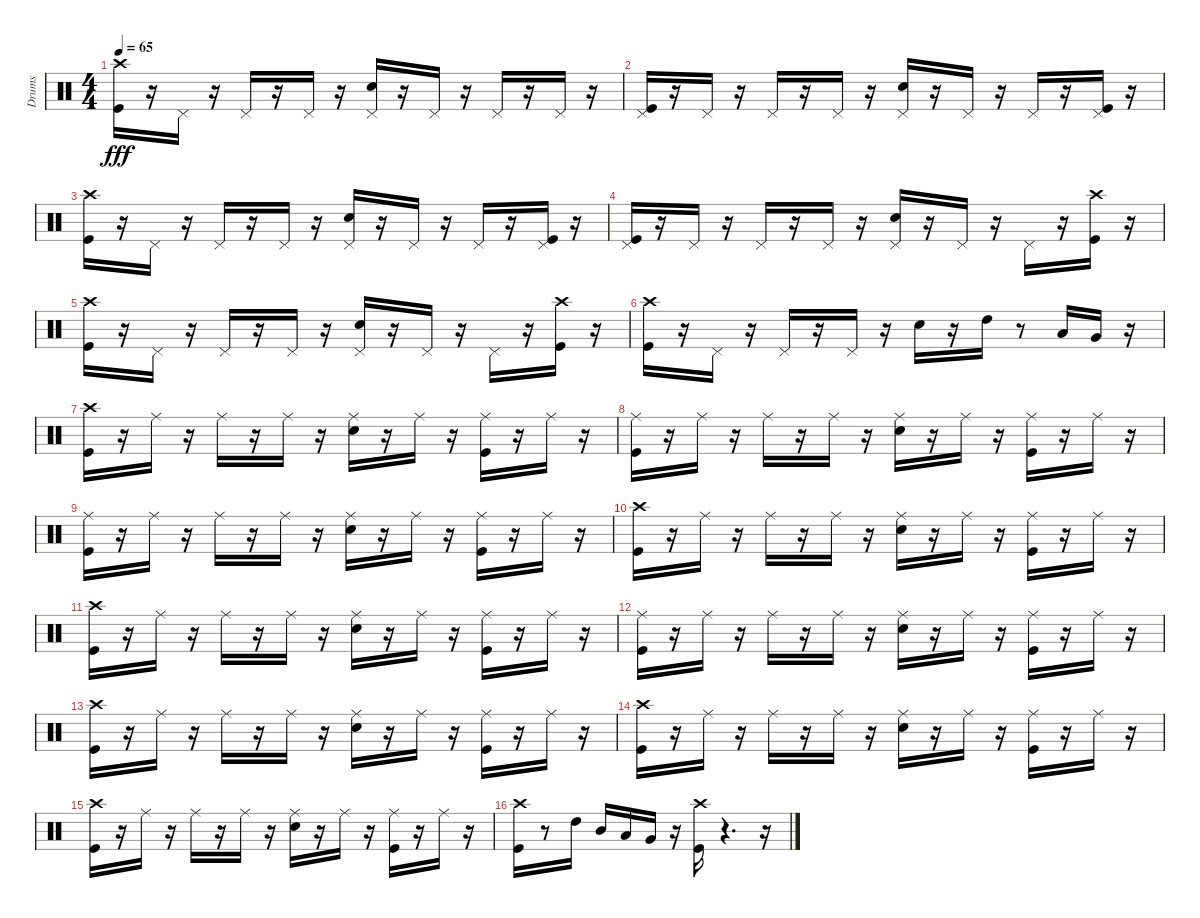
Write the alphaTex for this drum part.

\track ("Drums" "Drums") {instrument percussion}
\staff {score}
\articulation defaults
\ts (4 4)
\tempo 65
\clef neutral
\ks c
("Crash high (hit)" "Kick (hit)").16{dy fff} r.16 "Pedal Hi-Hat (hit)".16 r.16 "Pedal Hi-Hat (hit)".16 r.16 "Pedal Hi-Hat (hit)".16 r.16 ("Pedal Hi-Hat (hit)" "Snare (hit) 2").16 r.16 "Pedal Hi-Hat (hit)".16 r.16 "Pedal Hi-Hat (hit)".16 r.16 "Pedal Hi-Hat (hit)".16 r.16 |
("Kick (hit)" "Pedal Hi-Hat (hit)").16 r.16 "Pedal Hi-Hat (hit)".16 r.16 "Pedal Hi-Hat (hit)".16 r.16 "Pedal Hi-Hat (hit)".16 r.16 ("Snare (hit) 2" "Pedal Hi-Hat (hit)").16 r.16 "Pedal Hi-Hat (hit)".16 r.16 "Pedal Hi-Hat (hit)".16 r.16 ("Pedal Hi-Hat (hit)" "Kick (hit)").16 r.16 |
("Kick (hit)" "Crash high (hit)").16 r.16 "Pedal Hi-Hat (hit)".16 r.16 "Pedal Hi-Hat (hit)".16 r.16 "Pedal Hi-Hat (hit)".16 r.16 ("Snare (hit) 2" "Pedal Hi-Hat (hit)").16 r.16 "Pedal Hi-Hat (hit)".16 r.16 "Pedal Hi-Hat (hit)".16 r.16 ("Pedal Hi-Hat (hit)" "Kick (hit)").16 r.16 |
("Pedal Hi-Hat (hit)" "Kick (hit)").16 r.16 "Pedal Hi-Hat (hit)".16 r.16 "Pedal Hi-Hat (hit)".16 r.16 "Pedal Hi-Hat (hit)".16 r.16 ("Pedal Hi-Hat (hit)" "Snare (hit) 2").16 r.16 "Pedal Hi-Hat (hit)".16 r.16 "Pedal Hi-Hat (hit)".16 r.16 ("Kick (hit)" "Crash high (hit)").16 r.16 |
("Crash high (hit)" "Kick (hit)").16 r.16 "Pedal Hi-Hat (hit)".16 r.16 "Pedal Hi-Hat (hit)".16 r.16 "Pedal Hi-Hat (hit)".16 r.16 ("Pedal Hi-Hat (hit)" "Snare (hit) 2").16 r.16 "Pedal Hi-Hat (hit)".16 r.16 "Pedal Hi-Hat (hit)".16 r.16 ("Kick (hit)" "Crash high (hit)").16 r.16 |
("Kick (hit)" "Crash high (hit)").16 r.16 "Pedal Hi-Hat (hit)".16 r.16 "Pedal Hi-Hat (hit)".16 r.16 "Pedal Hi-Hat (hit)".16 r.16 "Snare (hit) 2".16 r.16 "High Tom (hit)".16 r.8 "Low Tom (hit)".16 "Very Low Tom (hit)".16 r.16 |
("Kick (hit)" "Crash high (hit)").16 r.16 "Ride (middle)".16 r.16 "Ride (middle)".16 r.16 "Ride (middle)".16 r.16 ("Snare (hit) 2" "Ride (middle)").16 r.16 "Ride (middle)".16 r.16 ("Kick (hit)" "Ride (middle)").16 r.16 "Ride (middle)".16 r.16 |
("Kick (hit)" "Ride (middle)").16 r.16 "Ride (middle)".16 r.16 "Ride (middle)".16 r.16 "Ride (middle)".16 r.16 ("Ride (middle)" "Snare (hit) 2").16 r.16 "Ride (middle)".16 r.16 ("Kick (hit)" "Ride (middle)").16 r.16 "Ride (middle)".16 r.16 |
("Kick (hit)" "Ride (middle)").16 r.16 "Ride (middle)".16 r.16 "Ride (middle)".16 r.16 "Ride (middle)".16 r.16 ("Snare (hit) 2" "Ride (middle)").16 r.16 "Ride (middle)".16 r.16 ("Kick (hit)" "Ride (middle)").16 r.16 "Ride (middle)".16 r.16 |
("Kick (hit)" "Crash high (hit)").16 r.16 "Ride (middle)".16 r.16 "Ride (middle)".16 r.16 "Ride (middle)".16 r.16 ("Ride (middle)" "Snare (hit) 2").16 r.16 "Ride (middle)".16 r.16 ("Kick (hit)" "Ride (middle)").16 r.16 "Ride (middle)".16 r.16 |
("Kick (hit)" "Crash high (hit)").16 r.16 "Ride (middle)".16 r.16 "Ride (middle)".16 r.16 "Ride (middle)".16 r.16 ("Ride (middle)" "Snare (hit) 2").16 r.16 "Ride (middle)".16 r.16 ("Kick (hit)" "Ride (middle)").16 r.16 "Ride (middle)".16 r.16 |
("Kick (hit)" "Ride (middle)").16 r.16 "Ride (middle)".16 r.16 "Ride (middle)".16 r.16 "Ride (middle)".16 r.16 ("Snare (hit) 2" "Ride (middle)").16 r.16 "Ride (middle)".16 r.16 ("Kick (hit)" "Ride (middle)").16 r.16 "Ride (middle)".16 r.16 |
("Kick (hit)" "Crash high (hit)").16 r.16 "Ride (middle)".16 r.16 "Ride (middle)".16 r.16 "Ride (middle)".16 r.16 ("Ride (middle)" "Snare (hit) 2").16 r.16 "Ride (middle)".16 r.16 ("Kick (hit)" "Ride (middle)").16 r.16 "Ride (middle)".16 r.16 |
("Kick (hit)" "Crash high (hit)").16 r.16 "Ride (middle)".16 r.16 "Ride (middle)".16 r.16 "Ride (middle)".16 r.16 ("Snare (hit) 2" "Ride (middle)").16 r.16 "Ride (middle)".16 r.16 ("Kick (hit)" "Ride (middle)").16 r.16 "Ride (middle)".16 r.16 |
("Kick (hit)" "Crash high (hit)").16 r.16 "Ride (middle)".16 r.16 "Ride (middle)".16 r.16 "Ride (middle)".16 r.16 ("Snare (hit) 2" "Ride (middle)").16 r.16 "Ride (middle)".16 r.16 ("Kick (hit)" "Ride (middle)").16 r.16 "Ride (middle)".16 r.16 |
("Kick (hit)" "Crash high (hit)").16 r.8 "High Tom (hit)".16 "Mid Tom (hit)".16 "Low Tom (hit)".16 "Very Low Tom (hit)".16 r.16 ("Kick (hit)" "Crash high (hit)").16 r.4{d} r.16
